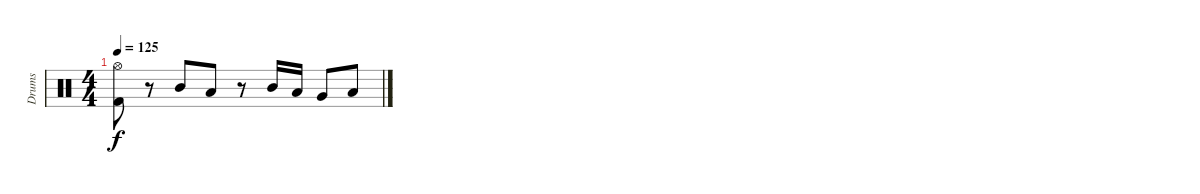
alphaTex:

\track ("Drums" "Drums") {instrument percussion}
\staff {score}
\articulation defaults
\ts (4 4)
\tempo 125
\clef neutral
\ks c
("Hi-Hat (open)" "Kick (hit) 2").8{dy f} r.8 "Mid Tom (hit)".8 "Low Tom (hit)".8 r.8 "Mid Tom (hit)".16 "Low Tom (hit)".16 "Very Low Tom (hit)".8 "Low Floor Tom (hit)".8
